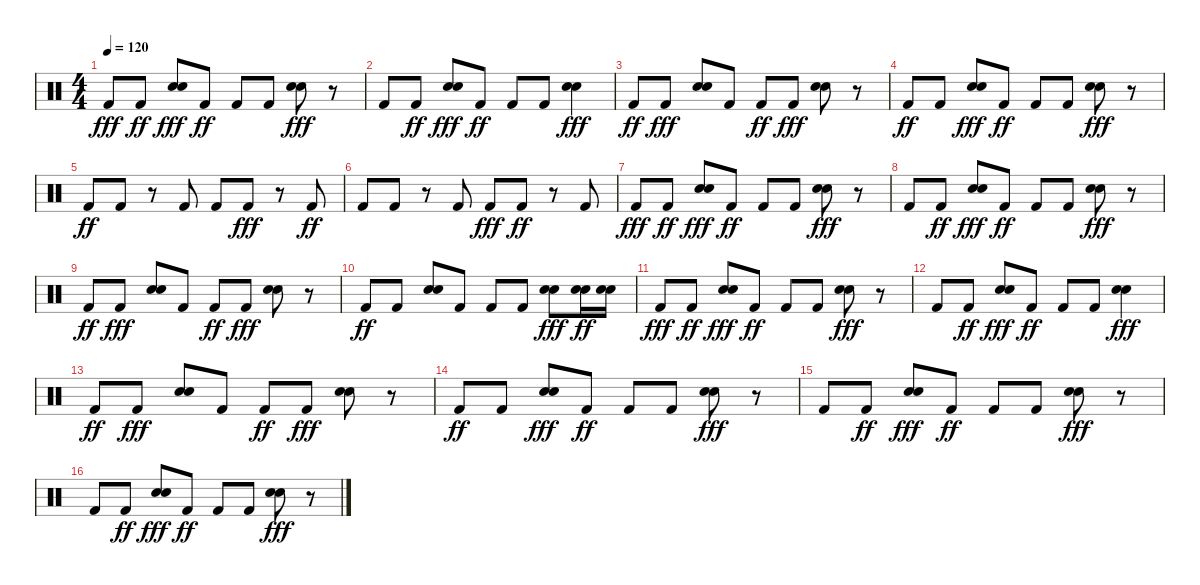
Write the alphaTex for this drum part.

\track "" {instrument percussion}
\staff {score}
\articulation defaults
\ts (4 4)
\tempo 120
\clef neutral
\ks c "Kick (hit) 2".8{dy fff} "Kick (hit) 2".8{dy ff}
("Electric Snare (hit)" "Snare (hit) 2").8{dy fff} "Kick (hit) 2".8{dy ff} "Kick (hit) 2".8 "Kick (hit) 2".8 ("Electric Snare (hit)" "Snare (hit) 2").8{dy fff} r.8 |
"Kick (hit) 2".8 "Kick (hit) 2".8{dy ff} ("Electric Snare (hit)" "Snare (hit) 2").8{dy fff} "Kick (hit) 2".8{dy ff} "Kick (hit) 2".8 "Kick (hit) 2".8 ("Electric Snare (hit)" "Snare (hit) 2").4{dy fff} |
"Kick (hit) 2".8{dy ff} "Kick (hit) 2".8{dy fff} ("Snare (hit) 2" "Electric Snare (hit)").8 "Kick (hit) 2".8 "Kick (hit) 2".8{dy ff} "Kick (hit) 2".8{dy fff} ("Snare (hit) 2" "Electric Snare (hit)").8 r.8 |
"Kick (hit) 2".8{dy ff} "Kick (hit) 2".8 ("Electric Snare (hit)" "Snare (hit) 2").8{dy fff} "Kick (hit) 2".8{dy ff} "Kick (hit) 2".8 "Kick (hit) 2".8 ("Snare (hit) 2" "Electric Snare (hit)").8{dy fff} r.8 |
"Kick (hit) 2".8{dy ff} "Kick (hit) 2".8 r.8 "Kick (hit) 2".8 "Kick (hit) 2".8 "Kick (hit) 2".8{dy fff} r.8 "Kick (hit) 2".8{dy ff} |
"Kick (hit) 2".8 "Kick (hit) 2".8 r.8 "Kick (hit) 2".8 "Kick (hit) 2".8{dy fff} "Kick (hit) 2".8{dy ff} r.8 "Kick (hit) 2".8 |
"Kick (hit) 2".8{dy fff} "Kick (hit) 2".8{dy ff} ("Electric Snare (hit)" "Snare (hit) 2").8{dy fff} "Kick (hit) 2".8{dy ff} "Kick (hit) 2".8 "Kick (hit) 2".8 ("Electric Snare (hit)" "Snare (hit) 2").8{dy fff} r.8 |
"Kick (hit) 2".8 "Kick (hit) 2".8{dy ff} ("Electric Snare (hit)" "Snare (hit) 2").8{dy fff} "Kick (hit) 2".8{dy ff} "Kick (hit) 2".8 "Kick (hit) 2".8 ("Snare (hit) 2" "Electric Snare (hit)").8{dy fff} r.8 |
"Kick (hit) 2".8{dy ff} "Kick (hit) 2".8{dy fff} ("Electric Snare (hit)" "Snare (hit) 2").8 "Kick (hit) 2".8 "Kick (hit) 2".8{dy ff} "Kick (hit) 2".8{dy fff} ("Snare (hit) 2" "Electric Snare (hit)").8 r.8 |
"Kick (hit) 2".8{dy ff} "Kick (hit) 2".8 ("Snare (hit) 2" "Electric Snare (hit)").8 "Kick (hit) 2".8 "Kick (hit) 2".8 "Kick (hit) 2".8 ("Electric Snare (hit)" "Snare (hit) 2").8{dy fff} ("Electric Snare (hit)" "Snare (hit) 2").16{dy ff} ("Snare (hit) 2" "Electric Snare (hit)").16 |
"Kick (hit) 2".8{dy fff} "Kick (hit) 2".8{dy ff} ("Electric Snare (hit)" "Snare (hit) 2").8{dy fff} "Kick (hit) 2".8{dy ff} "Kick (hit) 2".8 "Kick (hit) 2".8 ("Electric Snare (hit)" "Snare (hit) 2").8{dy fff} r.8 |
"Kick (hit) 2".8 "Kick (hit) 2".8{dy ff} ("Electric Snare (hit)" "Snare (hit) 2").8{dy fff} "Kick (hit) 2".8{dy ff} "Kick (hit) 2".8 "Kick (hit) 2".8 ("Electric Snare (hit)" "Snare (hit) 2").4{dy fff} |
"Kick (hit) 2".8{dy ff} "Kick (hit) 2".8{dy fff} ("Snare (hit) 2" "Electric Snare (hit)").8 "Kick (hit) 2".8 "Kick (hit) 2".8{dy ff} "Kick (hit) 2".8{dy fff} ("Snare (hit) 2" "Electric Snare (hit)").8 r.8 |
"Kick (hit) 2".8{dy ff} "Kick (hit) 2".8 ("Electric Snare (hit)" "Snare (hit) 2").8{dy fff} "Kick (hit) 2".8{dy ff} "Kick (hit) 2".8 "Kick (hit) 2".8 ("Snare (hit) 2" "Electric Snare (hit)").8{dy fff} r.8 |
"Kick (hit) 2".8 "Kick (hit) 2".8{dy ff} ("Electric Snare (hit)" "Snare (hit) 2").8{dy fff} "Kick (hit) 2".8{dy ff} "Kick (hit) 2".8 "Kick (hit) 2".8 ("Electric Snare (hit)" "Snare (hit) 2").8{dy fff} r.8 |
"Kick (hit) 2".8 "Kick (hit) 2".8{dy ff} ("Electric Snare (hit)" "Snare (hit) 2").8{dy fff} "Kick (hit) 2".8{dy ff} "Kick (hit) 2".8 "Kick (hit) 2".8 ("Snare (hit) 2" "Electric Snare (hit)").8{dy fff} r.8
